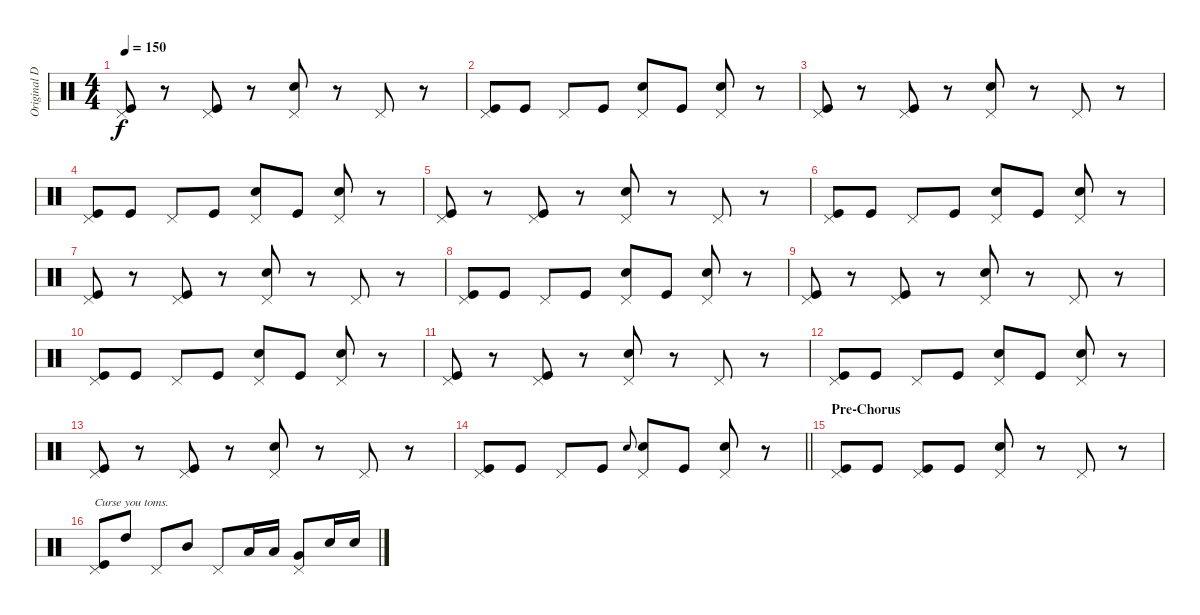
\track ("Original Drums" "Original D") {instrument percussion}
\staff {score}
\articulation defaults
\ts (4 4)
\tempo 150
\clef neutral
\ks c
("Pedal Hi-Hat (hit)" "Kick (hit)").8{dy f} r.8 ("Pedal Hi-Hat (hit)" "Kick (hit)").8 r.8 ("Pedal Hi-Hat (hit)" "Snare (hit) 2").8 r.8 "Pedal Hi-Hat (hit)".8 r.8 |
("Pedal Hi-Hat (hit)" "Kick (hit)").8 "Kick (hit)".8 "Pedal Hi-Hat (hit)".8 "Kick (hit)".8 ("Pedal Hi-Hat (hit)" "Snare (hit) 2").8 "Kick (hit)".8 ("Pedal Hi-Hat (hit)" "Snare (hit) 2").8 r.8 |
("Pedal Hi-Hat (hit)" "Kick (hit)").8 r.8 ("Pedal Hi-Hat (hit)" "Kick (hit)").8 r.8 ("Pedal Hi-Hat (hit)" "Snare (hit) 2").8 r.8 "Pedal Hi-Hat (hit)".8 r.8 |
("Pedal Hi-Hat (hit)" "Kick (hit)").8 "Kick (hit)".8 "Pedal Hi-Hat (hit)".8 "Kick (hit)".8 ("Pedal Hi-Hat (hit)" "Snare (hit) 2").8 "Kick (hit)".8 ("Pedal Hi-Hat (hit)" "Snare (hit) 2").8 r.8 |
("Pedal Hi-Hat (hit)" "Kick (hit)").8 r.8 ("Pedal Hi-Hat (hit)" "Kick (hit)").8 r.8 ("Pedal Hi-Hat (hit)" "Snare (hit) 2").8 r.8 "Pedal Hi-Hat (hit)".8 r.8 |
("Pedal Hi-Hat (hit)" "Kick (hit)").8 "Kick (hit)".8 "Pedal Hi-Hat (hit)".8 "Kick (hit)".8 ("Pedal Hi-Hat (hit)" "Snare (hit) 2").8 "Kick (hit)".8 ("Pedal Hi-Hat (hit)" "Snare (hit) 2").8 r.8 |
("Pedal Hi-Hat (hit)" "Kick (hit)").8 r.8 ("Pedal Hi-Hat (hit)" "Kick (hit)").8 r.8 ("Pedal Hi-Hat (hit)" "Snare (hit) 2").8 r.8 "Pedal Hi-Hat (hit)".8 r.8 |
("Pedal Hi-Hat (hit)" "Kick (hit)").8 "Kick (hit)".8 "Pedal Hi-Hat (hit)".8 "Kick (hit)".8 ("Pedal Hi-Hat (hit)" "Snare (hit) 2").8 "Kick (hit)".8 ("Pedal Hi-Hat (hit)" "Snare (hit) 2").8 r.8 |
("Pedal Hi-Hat (hit)" "Kick (hit)").8 r.8 ("Pedal Hi-Hat (hit)" "Kick (hit)").8 r.8 ("Pedal Hi-Hat (hit)" "Snare (hit) 2").8 r.8 "Pedal Hi-Hat (hit)".8 r.8 |
("Pedal Hi-Hat (hit)" "Kick (hit)").8 "Kick (hit)".8 "Pedal Hi-Hat (hit)".8 "Kick (hit)".8 ("Pedal Hi-Hat (hit)" "Snare (hit) 2").8 "Kick (hit)".8 ("Pedal Hi-Hat (hit)" "Snare (hit) 2").8 r.8 |
("Pedal Hi-Hat (hit)" "Kick (hit)").8 r.8 ("Pedal Hi-Hat (hit)" "Kick (hit)").8 r.8 ("Pedal Hi-Hat (hit)" "Snare (hit) 2").8 r.8 "Pedal Hi-Hat (hit)".8 r.8 |
("Pedal Hi-Hat (hit)" "Kick (hit)").8 "Kick (hit)".8 "Pedal Hi-Hat (hit)".8 "Kick (hit)".8 ("Pedal Hi-Hat (hit)" "Snare (hit) 2").8 "Kick (hit)".8 ("Pedal Hi-Hat (hit)" "Snare (hit) 2").8 r.8 |
("Pedal Hi-Hat (hit)" "Kick (hit)").8 r.8 ("Pedal Hi-Hat (hit)" "Kick (hit)").8 r.8 ("Pedal Hi-Hat (hit)" "Snare (hit) 2").8 r.8 "Pedal Hi-Hat (hit)".8 r.8 |
\barLineRight lightlight
("Pedal Hi-Hat (hit)" "Kick (hit)").8 "Kick (hit)".8 "Pedal Hi-Hat (hit)".8 "Kick (hit)".8 "Snare (hit) 2".8{gr onbeat} ("Pedal Hi-Hat (hit)" "Snare (hit) 2").8 "Kick (hit)".8 ("Pedal Hi-Hat (hit)" "Snare (hit) 2").8 r.8 |
\section ("" "Pre-Chorus")
("Pedal Hi-Hat (hit)" "Kick (hit)").8 "Kick (hit)".8 ("Pedal Hi-Hat (hit)" "Kick (hit)").8 "Kick (hit)".8 ("Pedal Hi-Hat (hit)" "Snare (hit) 2").8 r.8 "Pedal Hi-Hat (hit)".8 r.8 |
("Pedal Hi-Hat (hit)" "Kick (hit)").8{txt "Curse you toms."} "High Tom (hit)".8 "Pedal Hi-Hat (hit)".8 "Mid Tom (hit)".8 "Pedal Hi-Hat (hit)".8 "Low Tom (hit)".16 "Low Tom (hit)".16 ("Pedal Hi-Hat (hit)" "Very Low Tom (hit)").8 "Snare (hit) 2".16 "Snare (hit) 2".16
